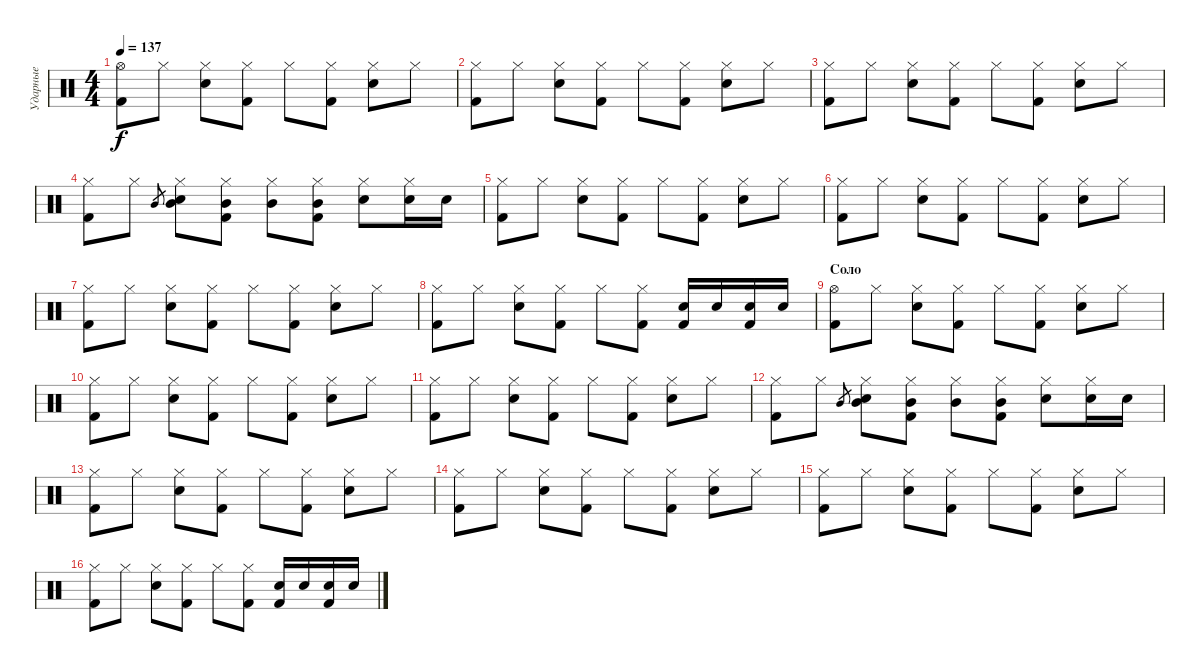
\track ("Ударные" "Ударные") {instrument percussion}
\staff {score}
\articulation defaults
\ts (4 4)
\tempo 137
\clef neutral
\ks c
("Hi-Hat (open)" "Kick (hit) 2").8{dy f} "Hi-Hat (closed)".8 ("Hi-Hat (closed)" "Electric Snare (hit)").8 ("Hi-Hat (closed)" "Kick (hit) 2").8 "Hi-Hat (closed)".8 ("Hi-Hat (closed)" "Kick (hit) 2").8 ("Hi-Hat (closed)" "Electric Snare (hit)").8 "Hi-Hat (closed)".8 |
("Hi-Hat (closed)" "Kick (hit) 2").8 "Hi-Hat (closed)".8 ("Hi-Hat (closed)" "Electric Snare (hit)").8 ("Hi-Hat (closed)" "Kick (hit) 2").8 "Hi-Hat (closed)".8 ("Hi-Hat (closed)" "Kick (hit) 2").8 ("Hi-Hat (closed)" "Electric Snare (hit)").8 "Hi-Hat (closed)".8 |
("Hi-Hat (closed)" "Kick (hit) 2").8 "Hi-Hat (closed)".8 ("Hi-Hat (closed)" "Electric Snare (hit)").8 ("Hi-Hat (closed)" "Kick (hit) 2").8 "Hi-Hat (closed)".8 ("Hi-Hat (closed)" "Kick (hit) 2").8 ("Hi-Hat (closed)" "Electric Snare (hit)").8 "Hi-Hat (closed)".8 |
("Hi-Hat (closed)" "Kick (hit) 2").8 "Hi-Hat (closed)".8 "Mid Tom (hit)".8{gr} ("Hi-Hat (closed)" "Electric Snare (hit)" "Mid Tom (hit)").8 ("Hi-Hat (closed)" "Kick (hit) 2" "Mid Tom (hit)").8 ("Hi-Hat (closed)" "Mid Tom (hit)").8 ("Hi-Hat (closed)" "Kick (hit) 2" "Mid Tom (hit)").8 ("Hi-Hat (closed)" "Electric Snare (hit)").8 ("Hi-Hat (closed)" "Electric Snare (hit)").16 "Electric Snare (hit)".16 |
("Hi-Hat (closed)" "Kick (hit) 2").8 "Hi-Hat (closed)".8 ("Hi-Hat (closed)" "Electric Snare (hit)").8 ("Hi-Hat (closed)" "Kick (hit) 2").8 "Hi-Hat (closed)".8 ("Hi-Hat (closed)" "Kick (hit) 2").8 ("Hi-Hat (closed)" "Electric Snare (hit)").8 "Hi-Hat (closed)".8 |
("Hi-Hat (closed)" "Kick (hit) 2").8 "Hi-Hat (closed)".8 ("Hi-Hat (closed)" "Electric Snare (hit)").8 ("Hi-Hat (closed)" "Kick (hit) 2").8 "Hi-Hat (closed)".8 ("Hi-Hat (closed)" "Kick (hit) 2").8 ("Hi-Hat (closed)" "Electric Snare (hit)").8 "Hi-Hat (closed)".8 |
("Hi-Hat (closed)" "Kick (hit) 2").8 "Hi-Hat (closed)".8 ("Hi-Hat (closed)" "Electric Snare (hit)").8 ("Hi-Hat (closed)" "Kick (hit) 2").8 "Hi-Hat (closed)".8 ("Hi-Hat (closed)" "Kick (hit) 2").8 ("Hi-Hat (closed)" "Electric Snare (hit)").8 "Hi-Hat (closed)".8 |
("Hi-Hat (closed)" "Kick (hit) 2").8 "Hi-Hat (closed)".8 ("Hi-Hat (closed)" "Electric Snare (hit)").8 ("Hi-Hat (closed)" "Kick (hit) 2").8 "Hi-Hat (closed)".8 ("Hi-Hat (closed)" "Kick (hit) 2").8 ("Kick (hit) 2" "Electric Snare (hit)").16 "Electric Snare (hit)".16 ("Kick (hit) 2" "Electric Snare (hit)").16 "Electric Snare (hit)".16 |
\section ("" "Соло")
("Hi-Hat (open)" "Kick (hit) 2").8 "Hi-Hat (closed)".8 ("Hi-Hat (closed)" "Electric Snare (hit)").8 ("Hi-Hat (closed)" "Kick (hit) 2").8 "Hi-Hat (closed)".8 ("Hi-Hat (closed)" "Kick (hit) 2").8 ("Hi-Hat (closed)" "Electric Snare (hit)").8 "Hi-Hat (closed)".8 |
("Hi-Hat (closed)" "Kick (hit) 2").8 "Hi-Hat (closed)".8 ("Hi-Hat (closed)" "Electric Snare (hit)").8 ("Hi-Hat (closed)" "Kick (hit) 2").8 "Hi-Hat (closed)".8 ("Hi-Hat (closed)" "Kick (hit) 2").8 ("Hi-Hat (closed)" "Electric Snare (hit)").8 "Hi-Hat (closed)".8 |
("Hi-Hat (closed)" "Kick (hit) 2").8 "Hi-Hat (closed)".8 ("Hi-Hat (closed)" "Electric Snare (hit)").8 ("Hi-Hat (closed)" "Kick (hit) 2").8 "Hi-Hat (closed)".8 ("Hi-Hat (closed)" "Kick (hit) 2").8 ("Hi-Hat (closed)" "Electric Snare (hit)").8 "Hi-Hat (closed)".8 |
("Hi-Hat (closed)" "Kick (hit) 2").8 "Hi-Hat (closed)".8 "Mid Tom (hit)".8{gr} ("Hi-Hat (closed)" "Electric Snare (hit)" "Mid Tom (hit)").8 ("Hi-Hat (closed)" "Kick (hit) 2" "Mid Tom (hit)").8 ("Hi-Hat (closed)" "Mid Tom (hit)").8 ("Hi-Hat (closed)" "Kick (hit) 2" "Mid Tom (hit)").8 ("Hi-Hat (closed)" "Electric Snare (hit)").8 ("Hi-Hat (closed)" "Electric Snare (hit)").16 "Electric Snare (hit)".16 |
("Hi-Hat (closed)" "Kick (hit) 2").8 "Hi-Hat (closed)".8 ("Hi-Hat (closed)" "Electric Snare (hit)").8 ("Hi-Hat (closed)" "Kick (hit) 2").8 "Hi-Hat (closed)".8 ("Hi-Hat (closed)" "Kick (hit) 2").8 ("Hi-Hat (closed)" "Electric Snare (hit)").8 "Hi-Hat (closed)".8 |
("Hi-Hat (closed)" "Kick (hit) 2").8 "Hi-Hat (closed)".8 ("Hi-Hat (closed)" "Electric Snare (hit)").8 ("Hi-Hat (closed)" "Kick (hit) 2").8 "Hi-Hat (closed)".8 ("Hi-Hat (closed)" "Kick (hit) 2").8 ("Hi-Hat (closed)" "Electric Snare (hit)").8 "Hi-Hat (closed)".8 |
("Hi-Hat (closed)" "Kick (hit) 2").8 "Hi-Hat (closed)".8 ("Hi-Hat (closed)" "Electric Snare (hit)").8 ("Hi-Hat (closed)" "Kick (hit) 2").8 "Hi-Hat (closed)".8 ("Hi-Hat (closed)" "Kick (hit) 2").8 ("Hi-Hat (closed)" "Electric Snare (hit)").8 "Hi-Hat (closed)".8 |
("Hi-Hat (closed)" "Kick (hit) 2").8 "Hi-Hat (closed)".8 ("Hi-Hat (closed)" "Electric Snare (hit)").8 ("Hi-Hat (closed)" "Kick (hit) 2").8 "Hi-Hat (closed)".8 ("Hi-Hat (closed)" "Kick (hit) 2").8 ("Kick (hit) 2" "Electric Snare (hit)").16 "Electric Snare (hit)".16 ("Kick (hit) 2" "Electric Snare (hit)").16 "Electric Snare (hit)".16
